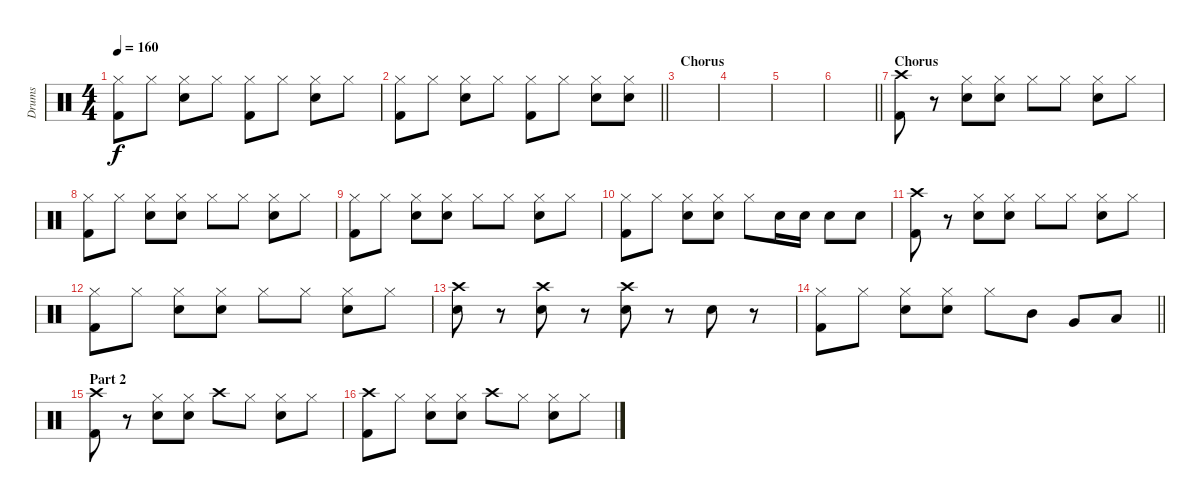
\track ("Drums" "Drums") {instrument percussion}
\staff {score}
\articulation defaults
\ts (4 4)
\tempo 160
\clef neutral
\ks c
("Hi-Hat (closed)" "Kick (hit) 2").8{dy f} "Hi-Hat (closed)".8 ("Hi-Hat (closed)" "Electric Snare (hit)").8 "Hi-Hat (closed)".8 ("Hi-Hat (closed)" "Kick (hit) 2").8 "Hi-Hat (closed)".8 ("Hi-Hat (closed)" "Electric Snare (hit)").8 "Hi-Hat (closed)".8 |
\barLineRight lightlight
("Hi-Hat (closed)" "Kick (hit) 2").8 "Hi-Hat (closed)".8 ("Hi-Hat (closed)" "Electric Snare (hit)").8 "Hi-Hat (closed)".8 ("Hi-Hat (closed)" "Kick (hit) 2").8 "Hi-Hat (closed)".8 ("Hi-Hat (closed)" "Electric Snare (hit)").8 ("Hi-Hat (closed)" "Electric Snare (hit)").8 |
\section ("" "Chorus")
|
|
|
\barLineRight lightlight
|
\section ("" "Chorus")
("Crash high (hit)" "Kick (hit) 2").8 r.8 ("Hi-Hat (closed)" "Electric Snare (hit)").8 ("Hi-Hat (closed)" "Electric Snare (hit)").8 "Hi-Hat (closed)".8 "Hi-Hat (closed)".8 ("Hi-Hat (closed)" "Electric Snare (hit)").8 "Hi-Hat (closed)".8 |
("Hi-Hat (closed)" "Kick (hit) 2").8 "Hi-Hat (closed)".8 ("Hi-Hat (closed)" "Electric Snare (hit)").8 ("Hi-Hat (closed)" "Electric Snare (hit)").8 "Hi-Hat (closed)".8 "Hi-Hat (closed)".8 ("Hi-Hat (closed)" "Electric Snare (hit)").8 "Hi-Hat (closed)".8 |
("Hi-Hat (closed)" "Kick (hit) 2").8 "Hi-Hat (closed)".8 ("Hi-Hat (closed)" "Electric Snare (hit)").8 ("Hi-Hat (closed)" "Electric Snare (hit)").8 "Hi-Hat (closed)".8 "Hi-Hat (closed)".8 ("Hi-Hat (closed)" "Electric Snare (hit)").8 "Hi-Hat (closed)".8 |
("Hi-Hat (closed)" "Kick (hit) 2").8 "Hi-Hat (closed)".8 ("Hi-Hat (closed)" "Electric Snare (hit)").8 ("Hi-Hat (closed)" "Electric Snare (hit)").8 "Hi-Hat (closed)".8 "Electric Snare (hit)".16 "Electric Snare (hit)".16 "Electric Snare (hit)".8 "Electric Snare (hit)".8 |
("Crash high (hit)" "Kick (hit) 2").8 r.8 ("Hi-Hat (closed)" "Electric Snare (hit)").8 ("Hi-Hat (closed)" "Electric Snare (hit)").8 "Hi-Hat (closed)".8 "Hi-Hat (closed)".8 ("Hi-Hat (closed)" "Electric Snare (hit)").8 "Hi-Hat (closed)".8 |
("Hi-Hat (closed)" "Kick (hit) 2").8 "Hi-Hat (closed)".8 ("Hi-Hat (closed)" "Electric Snare (hit)").8 ("Hi-Hat (closed)" "Electric Snare (hit)").8 "Hi-Hat (closed)".8 "Hi-Hat (closed)".8 ("Hi-Hat (closed)" "Electric Snare (hit)").8 "Hi-Hat (closed)".8 |
("Crash high (hit)" "Electric Snare (hit)").8 r.8 ("Crash high (hit)" "Electric Snare (hit)").8 r.8 ("Crash high (hit)" "Electric Snare (hit)").8 r.8 "Electric Snare (hit)".8 r.8 |
\barLineRight lightlight
("Hi-Hat (closed)" "Kick (hit) 2").8 "Hi-Hat (closed)".8 ("Hi-Hat (closed)" "Electric Snare (hit)").8 ("Hi-Hat (closed)" "Electric Snare (hit)").8 "Hi-Hat (closed)".8 "Mid Tom (hit)".8 "Very Low Tom (hit)".8 "Low Tom (hit)".8 |
\section ("" "Part 2")
("Crash high (hit)" "Kick (hit) 2").8 r.8 ("Hi-Hat (closed)" "Electric Snare (hit)").8 ("Hi-Hat (closed)" "Electric Snare (hit)").8 "Crash high (hit)".8 "Hi-Hat (closed)".8 ("Hi-Hat (closed)" "Electric Snare (hit)").8 "Hi-Hat (closed)".8 |
("Crash high (hit)" "Kick (hit) 2").8 "Hi-Hat (closed)".8 ("Hi-Hat (closed)" "Electric Snare (hit)").8 ("Hi-Hat (closed)" "Electric Snare (hit)").8 "Crash high (hit)".8 "Hi-Hat (closed)".8 ("Hi-Hat (closed)" "Electric Snare (hit)").8 "Hi-Hat (closed)".8
